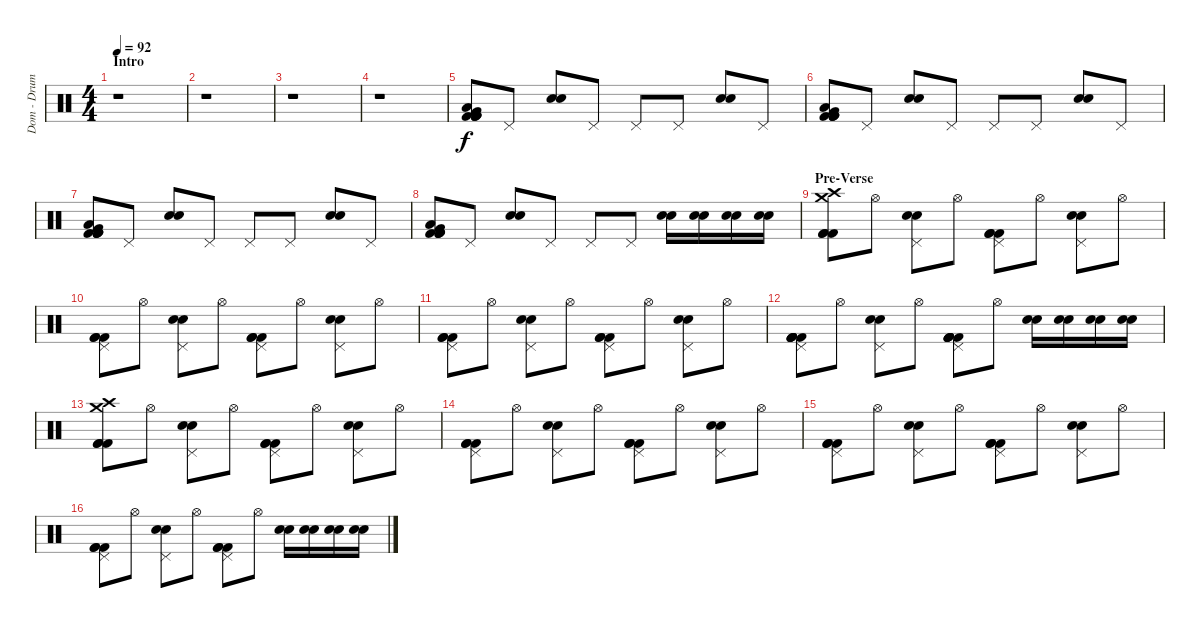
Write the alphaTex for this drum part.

\track ("Dom - Drums " "Dom - Drum") {instrument percussion}
\staff {score}
\articulation defaults
\ts (4 4)
\section ("" "Intro")
\tempo 92
\clef neutral
\ks c
r.1{dy f} |
r.1 |
r.1 |
r.1 |
("Kick (hit) 2" "Kick (hit) 2" "Low Floor Tom (hit)" "Very Low Tom (hit)" "Kick (hit) 2" "Kick (hit) 2").8 "Pedal Hi-Hat (hit)".8 ("Snare (hit) 2" "Electric Snare (hit)").8 "Pedal Hi-Hat (hit)".8 "Pedal Hi-Hat (hit)".8 "Pedal Hi-Hat (hit)".8 ("Snare (hit) 2" "Electric Snare (hit)").8 "Pedal Hi-Hat (hit)".8 |
("Kick (hit) 2" "Kick (hit) 2" "Low Floor Tom (hit)" "Very Low Tom (hit)" "Kick (hit) 2" "Kick (hit) 2").8 "Pedal Hi-Hat (hit)".8 ("Snare (hit) 2" "Electric Snare (hit)").8 "Pedal Hi-Hat (hit)".8 "Pedal Hi-Hat (hit)".8 "Pedal Hi-Hat (hit)".8 ("Snare (hit) 2" "Electric Snare (hit)").8 "Pedal Hi-Hat (hit)".8 |
("Kick (hit) 2" "Kick (hit) 2" "Low Floor Tom (hit)" "Very Low Tom (hit)" "Kick (hit) 2" "Kick (hit) 2").8 "Pedal Hi-Hat (hit)".8 ("Snare (hit) 2" "Electric Snare (hit)").8 "Pedal Hi-Hat (hit)".8 "Pedal Hi-Hat (hit)".8 "Pedal Hi-Hat (hit)".8 ("Snare (hit) 2" "Electric Snare (hit)").8 "Pedal Hi-Hat (hit)".8 |
("Kick (hit) 2" "Kick (hit) 2" "Low Floor Tom (hit)" "Very Low Tom (hit)" "Kick (hit) 2" "Kick (hit) 2").8 "Pedal Hi-Hat (hit)".8 ("Snare (hit) 2" "Electric Snare (hit)").8 "Pedal Hi-Hat (hit)".8 "Pedal Hi-Hat (hit)".8 "Pedal Hi-Hat (hit)".8 ("Snare (hit) 2" "Electric Snare (hit)").16 ("Snare (hit) 2" "Electric Snare (hit)").16 ("Snare (hit) 2" "Electric Snare (hit)").16 ("Snare (hit) 2" "Electric Snare (hit)").16 |
\section ("" "Pre-Verse")
("Crash medium (hit)" "Crash high (hit)" "Kick (hit) 2" "Kick (hit) 2" "Kick (hit) 2").8 "Hi-Hat (open)".8 ("Snare (hit) 2" "Pedal Hi-Hat (hit)" "Electric Snare (hit)").8 "Hi-Hat (open)".8 ("Pedal Hi-Hat (hit)" "Kick (hit) 2" "Kick (hit) 2" "Kick (hit) 2").8 "Hi-Hat (open)".8 ("Snare (hit) 2" "Pedal Hi-Hat (hit)" "Electric Snare (hit)").8 "Hi-Hat (open)".8 |
("Pedal Hi-Hat (hit)" "Kick (hit) 2" "Kick (hit) 2" "Kick (hit) 2").8 "Hi-Hat (open)".8 ("Snare (hit) 2" "Pedal Hi-Hat (hit)" "Electric Snare (hit)").8 "Hi-Hat (open)".8 ("Pedal Hi-Hat (hit)" "Kick (hit) 2" "Kick (hit) 2" "Kick (hit) 2").8 "Hi-Hat (open)".8 ("Snare (hit) 2" "Pedal Hi-Hat (hit)" "Electric Snare (hit)").8 "Hi-Hat (open)".8 |
("Pedal Hi-Hat (hit)" "Kick (hit) 2" "Kick (hit) 2" "Kick (hit) 2").8 "Hi-Hat (open)".8 ("Snare (hit) 2" "Pedal Hi-Hat (hit)" "Electric Snare (hit)").8 "Hi-Hat (open)".8 ("Kick (hit) 2" "Pedal Hi-Hat (hit)" "Kick (hit) 2" "Kick (hit) 2").8 "Hi-Hat (open)".8 ("Snare (hit) 2" "Pedal Hi-Hat (hit)" "Electric Snare (hit)").8 "Hi-Hat (open)".8 |
("Kick (hit) 2" "Pedal Hi-Hat (hit)" "Kick (hit) 2" "Kick (hit) 2" "Kick (hit) 2" "Kick (hit) 2").8 "Hi-Hat (open)".8 ("Snare (hit) 2" "Pedal Hi-Hat (hit)" "Electric Snare (hit)").8 "Hi-Hat (open)".8 ("Kick (hit) 2" "Pedal Hi-Hat (hit)" "Kick (hit) 2" "Kick (hit) 2" "Kick (hit) 2" "Kick (hit) 2").8 "Hi-Hat (open)".8 ("Snare (hit) 2" "Electric Snare (hit)").16 ("Snare (hit) 2" "Electric Snare (hit)").16 ("Snare (hit) 2" "Electric Snare (hit)").16 ("Snare (hit) 2" "Electric Snare (hit)").16 |
("Crash high (hit)" "Crash medium (hit)" "Kick (hit) 2" "Kick (hit) 2" "Kick (hit) 2").8 "Hi-Hat (open)".8 ("Snare (hit) 2" "Pedal Hi-Hat (hit)" "Electric Snare (hit)").8 "Hi-Hat (open)".8 ("Pedal Hi-Hat (hit)" "Kick (hit) 2" "Kick (hit) 2" "Kick (hit) 2").8 "Hi-Hat (open)".8 ("Snare (hit) 2" "Pedal Hi-Hat (hit)" "Electric Snare (hit)").8 "Hi-Hat (open)".8 |
("Kick (hit) 2" "Pedal Hi-Hat (hit)" "Kick (hit) 2" "Kick (hit) 2").8 "Hi-Hat (open)".8 ("Snare (hit) 2" "Pedal Hi-Hat (hit)" "Electric Snare (hit)").8 "Hi-Hat (open)".8 ("Kick (hit) 2" "Pedal Hi-Hat (hit)" "Kick (hit) 2" "Kick (hit) 2").8 "Hi-Hat (open)".8 ("Snare (hit) 2" "Pedal Hi-Hat (hit)" "Electric Snare (hit)").8 "Hi-Hat (open)".8 |
("Kick (hit) 2" "Pedal Hi-Hat (hit)" "Kick (hit) 2" "Kick (hit) 2").8 "Hi-Hat (open)".8 ("Snare (hit) 2" "Pedal Hi-Hat (hit)" "Electric Snare (hit)").8 "Hi-Hat (open)".8 ("Kick (hit) 2" "Pedal Hi-Hat (hit)" "Kick (hit) 2" "Kick (hit) 2").8 "Hi-Hat (open)".8 ("Snare (hit) 2" "Pedal Hi-Hat (hit)" "Electric Snare (hit)").8 "Hi-Hat (open)".8 |
("Kick (hit) 2" "Pedal Hi-Hat (hit)" "Kick (hit) 2" "Kick (hit) 2").8 "Hi-Hat (open)".8 ("Snare (hit) 2" "Pedal Hi-Hat (hit)" "Electric Snare (hit)").8 "Hi-Hat (open)".8 ("Kick (hit) 2" "Pedal Hi-Hat (hit)" "Kick (hit) 2" "Kick (hit) 2").8 "Hi-Hat (open)".8 ("Snare (hit) 2" "Electric Snare (hit)").16 ("Snare (hit) 2" "Electric Snare (hit)").16 ("Snare (hit) 2" "Electric Snare (hit)").16 ("Snare (hit) 2" "Electric Snare (hit)").16
